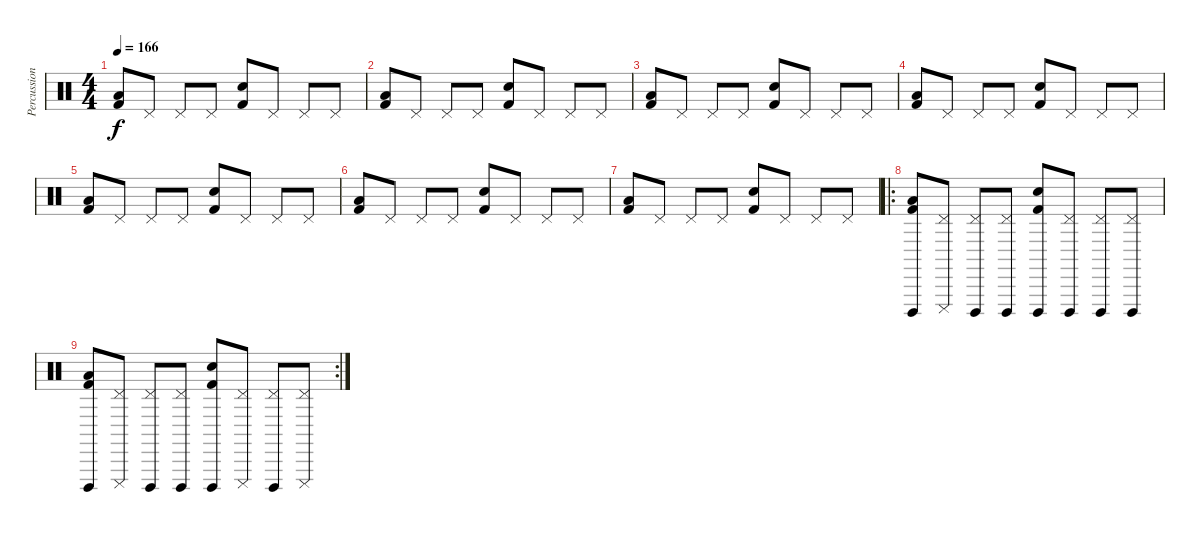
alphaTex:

\track ("Percussion" "Percussion") {instrument percussion}
\staff {score}
\articulation defaults
\ts (4 4)
\tempo 166
\clef neutral
\ks c
("Kick (hit) 2" "Low Tom (hit)").8{dy f} "Pedal Hi-Hat (hit)".8 "Pedal Hi-Hat (hit)".8 "Pedal Hi-Hat (hit)".8 ("Kick (hit) 2" "Electric Snare (hit)").8 "Pedal Hi-Hat (hit)".8 "Pedal Hi-Hat (hit)".8 "Pedal Hi-Hat (hit)".8 |
("Kick (hit) 2" "Low Tom (hit)").8 "Pedal Hi-Hat (hit)".8 "Pedal Hi-Hat (hit)".8 "Pedal Hi-Hat (hit)".8 ("Kick (hit) 2" "Electric Snare (hit)").8 "Pedal Hi-Hat (hit)".8 "Pedal Hi-Hat (hit)".8 "Pedal Hi-Hat (hit)".8 |
("Kick (hit) 2" "Low Tom (hit)").8 "Pedal Hi-Hat (hit)".8 "Pedal Hi-Hat (hit)".8 "Pedal Hi-Hat (hit)".8 ("Kick (hit) 2" "Electric Snare (hit)").8 "Pedal Hi-Hat (hit)".8 "Pedal Hi-Hat (hit)".8 "Pedal Hi-Hat (hit)".8 |
("Kick (hit) 2" "Low Tom (hit)").8 "Pedal Hi-Hat (hit)".8 "Pedal Hi-Hat (hit)".8 "Pedal Hi-Hat (hit)".8 ("Kick (hit) 2" "Electric Snare (hit)").8 "Pedal Hi-Hat (hit)".8 "Pedal Hi-Hat (hit)".8 "Pedal Hi-Hat (hit)".8 |
("Kick (hit) 2" "Low Tom (hit)").8 "Pedal Hi-Hat (hit)".8 "Pedal Hi-Hat (hit)".8 "Pedal Hi-Hat (hit)".8 ("Kick (hit) 2" "Electric Snare (hit)").8 "Pedal Hi-Hat (hit)".8 "Pedal Hi-Hat (hit)".8 "Pedal Hi-Hat (hit)".8 |
("Kick (hit) 2" "Low Tom (hit)").8 "Pedal Hi-Hat (hit)".8 "Pedal Hi-Hat (hit)".8 "Pedal Hi-Hat (hit)".8 ("Kick (hit) 2" "Electric Snare (hit)").8 "Pedal Hi-Hat (hit)".8 "Pedal Hi-Hat (hit)".8 "Pedal Hi-Hat (hit)".8 |
("Kick (hit) 2" "Low Tom (hit)").8 "Pedal Hi-Hat (hit)".8 "Pedal Hi-Hat (hit)".8 "Pedal Hi-Hat (hit)".8 ("Kick (hit) 2" "Electric Snare (hit)").8 "Pedal Hi-Hat (hit)".8 "Pedal Hi-Hat (hit)".8 "Pedal Hi-Hat (hit)".8 |
\ro
("Kick (hit) 2" "Cuica (open)" "Low Tom (hit)").8 ("Pedal Hi-Hat (hit)" "Cuica (mute)").8 ("Pedal Hi-Hat (hit)" "Cuica (open)").8 ("Pedal Hi-Hat (hit)" "Cuica (open)").8 ("Kick (hit) 2" "Cuica (open)" "Electric Snare (hit)").8 ("Pedal Hi-Hat (hit)" "Cuica (open)").8 ("Pedal Hi-Hat (hit)" "Cuica (open)").8 ("Pedal Hi-Hat (hit)" "Cuica (open)").8 |
\rc 2
("Kick (hit) 2" "Cuica (open)" "Low Tom (hit)").8 ("Pedal Hi-Hat (hit)" "Cuica (mute)").8 ("Pedal Hi-Hat (hit)" "Cuica (open)").8 ("Pedal Hi-Hat (hit)" "Cuica (open)").8 ("Kick (hit) 2" "Cuica (open)" "Electric Snare (hit)").8 ("Pedal Hi-Hat (hit)" "Cuica (mute)").8 ("Pedal Hi-Hat (hit)" "Cuica (open)").8 ("Pedal Hi-Hat (hit)" "Cuica (mute)").8
